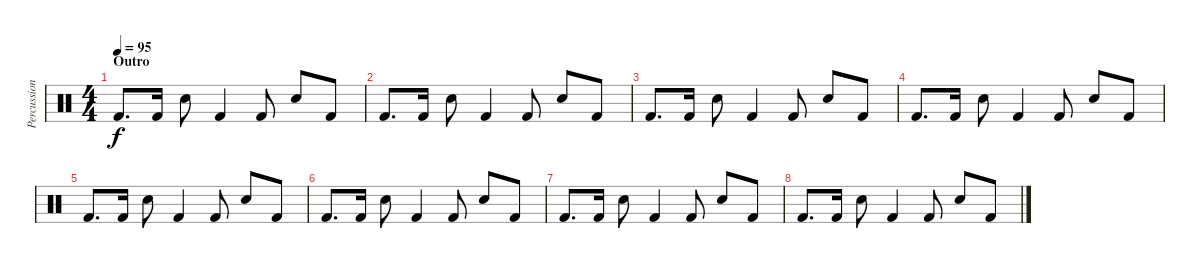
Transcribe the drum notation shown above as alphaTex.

\track ("Percussioni" "Percussion") {instrument percussion}
\staff {score}
\articulation defaults
\ts (4 4)
\section ("" "Outro")
\tempo 95
\clef neutral
\ks c "Kick (hit) 2".8{d dy f} "Kick (hit) 2".16 "Snare (hit) 2".8 "Kick (hit) 2".4 "Kick (hit) 2".8 "Snare (hit) 2".8 "Kick (hit) 2".8
|
"Kick (hit) 2".8{d} "Kick (hit) 2".16 "Snare (hit) 2".8 "Kick (hit) 2".4 "Kick (hit) 2".8 "Snare (hit) 2".8 "Kick (hit) 2".8 |
"Kick (hit) 2".8{d} "Kick (hit) 2".16 "Snare (hit) 2".8 "Kick (hit) 2".4 "Kick (hit) 2".8 "Snare (hit) 2".8 "Kick (hit) 2".8 |
"Kick (hit) 2".8{d} "Kick (hit) 2".16 "Snare (hit) 2".8 "Kick (hit) 2".4 "Kick (hit) 2".8 "Snare (hit) 2".8 "Kick (hit) 2".8 |
"Kick (hit) 2".8{d} "Kick (hit) 2".16 "Snare (hit) 2".8 "Kick (hit) 2".4 "Kick (hit) 2".8 "Snare (hit) 2".8 "Kick (hit) 2".8 |
"Kick (hit) 2".8{d} "Kick (hit) 2".16 "Snare (hit) 2".8 "Kick (hit) 2".4 "Kick (hit) 2".8 "Snare (hit) 2".8 "Kick (hit) 2".8 |
"Kick (hit) 2".8{d} "Kick (hit) 2".16 "Snare (hit) 2".8 "Kick (hit) 2".4 "Kick (hit) 2".8 "Snare (hit) 2".8 "Kick (hit) 2".8 |
"Kick (hit) 2".8{d} "Kick (hit) 2".16 "Snare (hit) 2".8 "Kick (hit) 2".4 "Kick (hit) 2".8 "Snare (hit) 2".8 "Kick (hit) 2".8
